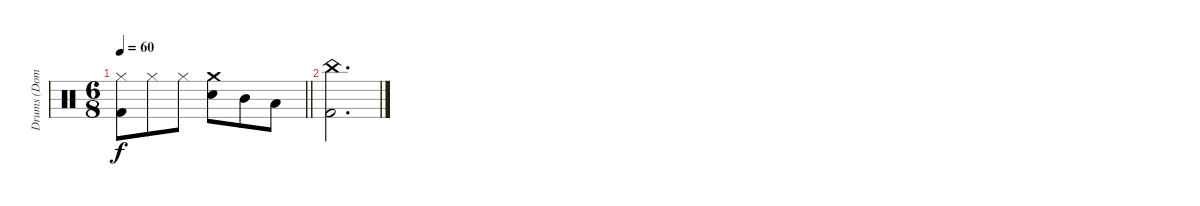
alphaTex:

\track ("Drums (Dom)" "Drums (Dom") {instrument percussion}
\staff {score}
\articulation defaults
\ts (6 8)
\tempo 60
\clef neutral
\barLineRight lightlight
\ks c
("Hi-Hat (closed)" "Kick (hit) 2").8{dy f} "Hi-Hat (closed)".8 "Hi-Hat (closed)".8 ("Crash medium (hit)" "Snare (hit) 2").8 "Mid Tom (hit)".8 "Low Tom (hit)".8 |
("China (hit)" "Kick (hit) 2").2{d}
